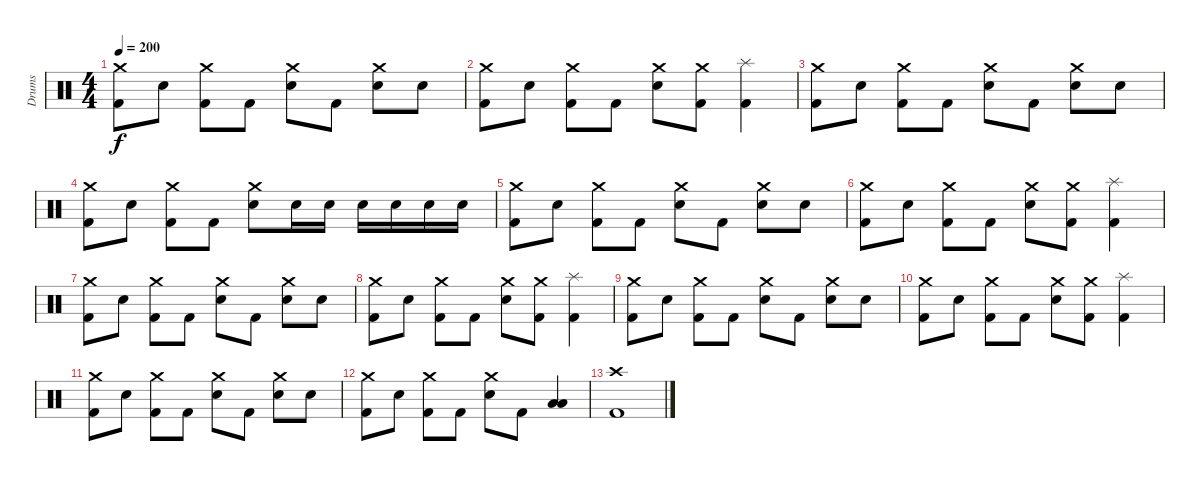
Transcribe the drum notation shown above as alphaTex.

\track ("Drums" "Drums") {instrument percussion}
\staff {score}
\articulation defaults
\ts (4 4)
\tempo 200
\clef neutral
\ks c
("Crash medium (hit)" "Kick (hit) 2").8{dy f} "Electric Snare (hit)".8 ("Crash medium (hit)" "Kick (hit) 2").8 "Kick (hit) 2".8 ("Crash medium (hit)" "Electric Snare (hit)").8 "Kick (hit) 2".8 ("Crash medium (hit)" "Electric Snare (hit)").8 "Electric Snare (hit)".8 |
("Crash medium (hit)" "Kick (hit) 2").8 "Electric Snare (hit)".8 ("Crash medium (hit)" "Kick (hit) 2").8 "Kick (hit) 2".8 ("Crash medium (hit)" "Electric Snare (hit)").8 ("Crash medium (hit)" "Kick (hit) 2").8 ("Splash (hit)" "Kick (hit) 2").4 |
("Crash medium (hit)" "Kick (hit) 2").8 "Electric Snare (hit)".8 ("Crash medium (hit)" "Kick (hit) 2").8 "Kick (hit) 2".8 ("Crash medium (hit)" "Electric Snare (hit)").8 "Kick (hit) 2".8 ("Crash medium (hit)" "Electric Snare (hit)").8 "Electric Snare (hit)".8 |
("Crash medium (hit)" "Kick (hit) 2").8 "Electric Snare (hit)".8 ("Crash medium (hit)" "Kick (hit) 2").8 "Kick (hit) 2".8 ("Crash medium (hit)" "Electric Snare (hit)").8 "Electric Snare (hit)".16 "Electric Snare (hit)".16 "Electric Snare (hit)".16 "Electric Snare (hit)".16 "Electric Snare (hit)".16 "Electric Snare (hit)".16 |
("Crash medium (hit)" "Kick (hit) 2").8 "Electric Snare (hit)".8 ("Crash medium (hit)" "Kick (hit) 2").8 "Kick (hit) 2".8 ("Crash medium (hit)" "Electric Snare (hit)").8 "Kick (hit) 2".8 ("Crash medium (hit)" "Electric Snare (hit)").8 "Electric Snare (hit)".8 |
("Crash medium (hit)" "Kick (hit) 2").8 "Electric Snare (hit)".8 ("Crash medium (hit)" "Kick (hit) 2").8 "Kick (hit) 2".8 ("Crash medium (hit)" "Electric Snare (hit)").8 ("Crash medium (hit)" "Kick (hit) 2").8 ("Splash (hit)" "Kick (hit) 2").4 |
("Crash medium (hit)" "Kick (hit) 2").8 "Electric Snare (hit)".8 ("Crash medium (hit)" "Kick (hit) 2").8 "Kick (hit) 2".8 ("Crash medium (hit)" "Electric Snare (hit)").8 "Kick (hit) 2".8 ("Crash medium (hit)" "Electric Snare (hit)").8 "Electric Snare (hit)".8 |
("Crash medium (hit)" "Kick (hit) 2").8 "Electric Snare (hit)".8 ("Crash medium (hit)" "Kick (hit) 2").8 "Kick (hit) 2".8 ("Crash medium (hit)" "Electric Snare (hit)").8 ("Crash medium (hit)" "Kick (hit) 2").8 ("Splash (hit)" "Kick (hit) 2").4 |
("Crash medium (hit)" "Kick (hit) 2").8 "Electric Snare (hit)".8 ("Crash medium (hit)" "Kick (hit) 2").8 "Kick (hit) 2".8 ("Crash medium (hit)" "Electric Snare (hit)").8 "Kick (hit) 2".8 ("Crash medium (hit)" "Electric Snare (hit)").8 "Electric Snare (hit)".8 |
("Crash medium (hit)" "Kick (hit) 2").8 "Electric Snare (hit)".8 ("Crash medium (hit)" "Kick (hit) 2").8 "Kick (hit) 2".8 ("Crash medium (hit)" "Electric Snare (hit)").8 ("Crash medium (hit)" "Kick (hit) 2").8 ("Splash (hit)" "Kick (hit) 2").4 |
("Crash medium (hit)" "Kick (hit) 2").8 "Electric Snare (hit)".8 ("Crash medium (hit)" "Kick (hit) 2").8 "Kick (hit) 2".8 ("Crash medium (hit)" "Electric Snare (hit)").8 "Kick (hit) 2".8 ("Crash medium (hit)" "Electric Snare (hit)").8 "Electric Snare (hit)".8 |
("Crash medium (hit)" "Kick (hit) 2").8 "Electric Snare (hit)".8 ("Crash medium (hit)" "Kick (hit) 2").8 "Kick (hit) 2".8 ("Crash medium (hit)" "Electric Snare (hit)").8 "Kick (hit) 2".8 ("Low Tom (hit)" "Low Floor Tom (hit)").4 |
("Crash high (hit)" "Kick (hit) 2").1
